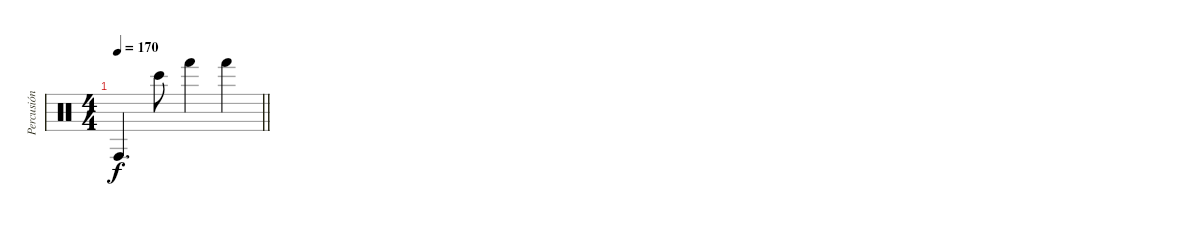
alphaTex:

\track ("Percusión" "Percusión") {instrument percussion}
\staff {score}
\articulation defaults
\ts (4 4)
\tempo 170
\clef neutral
\barLineRight lightlight
\ks c "Conga high (hit)".4{d dy f} "Bongo High (hit)".8 "Hand (hit)".4 "Hand (hit)".4
